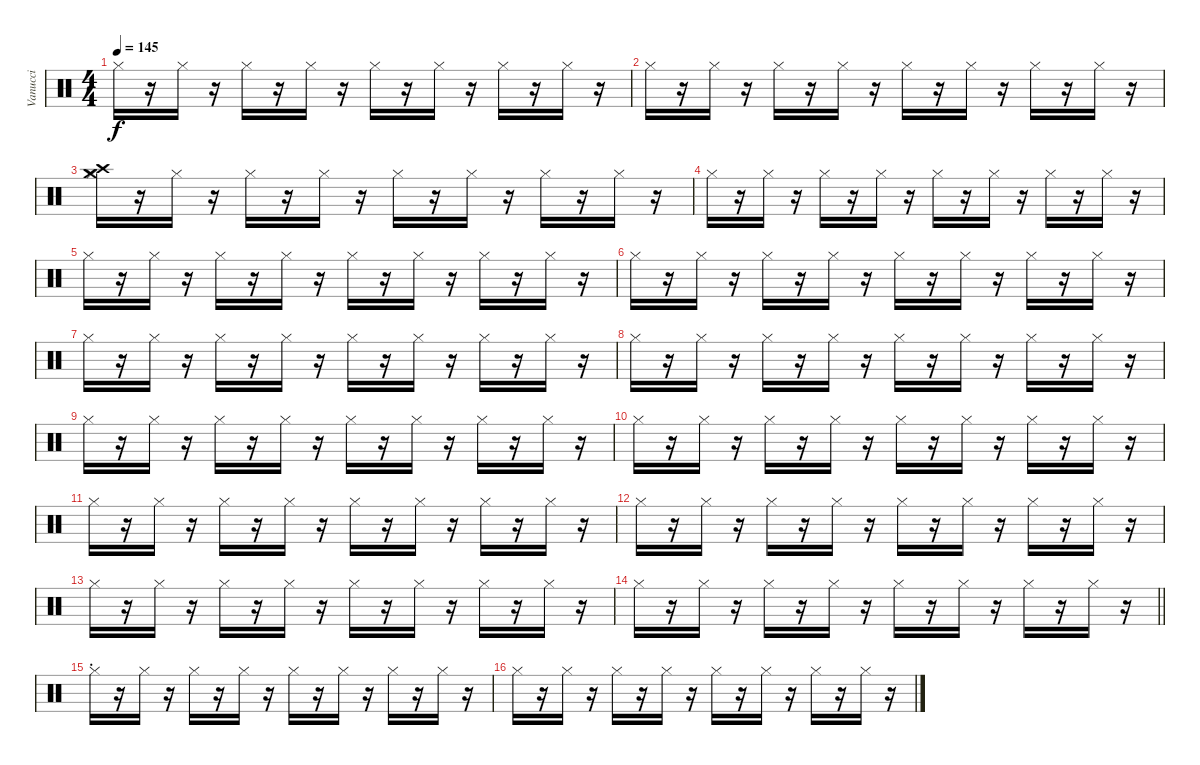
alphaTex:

\track ("Vanucci" "Vanucci") {instrument percussion}
\staff {score}
\articulation defaults
\ts (4 4)
\tempo 145
\clef neutral
\ks c "Hi-Hat (closed)".16{dy f}
r.16 "Hi-Hat (closed)".16 r.16 "Hi-Hat (closed)".16 r.16 "Hi-Hat (closed)".16 r.16 "Hi-Hat (closed)".16 r.16 "Hi-Hat (closed)".16 r.16 "Hi-Hat (closed)".16 r.16 "Hi-Hat (closed)".16 r.16 |
"Hi-Hat (closed)".16 r.16 "Hi-Hat (closed)".16 r.16 "Hi-Hat (closed)".16 r.16 "Hi-Hat (closed)".16 r.16 "Hi-Hat (closed)".16 r.16 "Hi-Hat (closed)".16 r.16 "Hi-Hat (closed)".16 r.16 "Hi-Hat (closed)".16 r.16 |
("Crash high (hit)" "Crash medium (hit)" "Hi-Hat (closed)").16 r.16 "Hi-Hat (closed)".16 r.16 "Hi-Hat (closed)".16 r.16 "Hi-Hat (closed)".16 r.16 "Hi-Hat (closed)".16 r.16 "Hi-Hat (closed)".16 r.16 "Hi-Hat (closed)".16 r.16 "Hi-Hat (closed)".16 r.16 |
"Hi-Hat (closed)".16 r.16 "Hi-Hat (closed)".16 r.16 "Hi-Hat (closed)".16 r.16 "Hi-Hat (closed)".16 r.16 "Hi-Hat (closed)".16 r.16 "Hi-Hat (closed)".16 r.16 "Hi-Hat (closed)".16 r.16 "Hi-Hat (closed)".16 r.16 |
"Hi-Hat (closed)".16 r.16 "Hi-Hat (closed)".16 r.16 "Hi-Hat (closed)".16 r.16 "Hi-Hat (closed)".16 r.16 "Hi-Hat (closed)".16 r.16 "Hi-Hat (closed)".16 r.16 "Hi-Hat (closed)".16 r.16 "Hi-Hat (closed)".16 r.16 |
"Hi-Hat (closed)".16 r.16 "Hi-Hat (closed)".16 r.16 "Hi-Hat (closed)".16 r.16 "Hi-Hat (closed)".16 r.16 "Hi-Hat (closed)".16 r.16 "Hi-Hat (closed)".16 r.16 "Hi-Hat (closed)".16 r.16 "Hi-Hat (closed)".16 r.16 |
"Hi-Hat (closed)".16 r.16 "Hi-Hat (closed)".16 r.16 "Hi-Hat (closed)".16 r.16 "Hi-Hat (closed)".16 r.16 "Hi-Hat (closed)".16 r.16 "Hi-Hat (closed)".16 r.16 "Hi-Hat (closed)".16 r.16 "Hi-Hat (closed)".16 r.16 |
"Hi-Hat (closed)".16 r.16 "Hi-Hat (closed)".16 r.16 "Hi-Hat (closed)".16 r.16 "Hi-Hat (closed)".16 r.16 "Hi-Hat (closed)".16 r.16 "Hi-Hat (closed)".16 r.16 "Hi-Hat (closed)".16 r.16 "Hi-Hat (closed)".16 r.16 |
"Hi-Hat (closed)".16 r.16 "Hi-Hat (closed)".16 r.16 "Hi-Hat (closed)".16 r.16 "Hi-Hat (closed)".16 r.16 "Hi-Hat (closed)".16 r.16 "Hi-Hat (closed)".16 r.16 "Hi-Hat (closed)".16 r.16 "Hi-Hat (closed)".16 r.16 |
"Hi-Hat (closed)".16 r.16 "Hi-Hat (closed)".16 r.16 "Hi-Hat (closed)".16 r.16 "Hi-Hat (closed)".16 r.16 "Hi-Hat (closed)".16 r.16 "Hi-Hat (closed)".16 r.16 "Hi-Hat (closed)".16 r.16 "Hi-Hat (closed)".16 r.16 |
"Hi-Hat (closed)".16 r.16 "Hi-Hat (closed)".16 r.16 "Hi-Hat (closed)".16 r.16 "Hi-Hat (closed)".16 r.16 "Hi-Hat (closed)".16 r.16 "Hi-Hat (closed)".16 r.16 "Hi-Hat (closed)".16 r.16 "Hi-Hat (closed)".16 r.16 |
"Hi-Hat (closed)".16 r.16 "Hi-Hat (closed)".16 r.16 "Hi-Hat (closed)".16 r.16 "Hi-Hat (closed)".16 r.16 "Hi-Hat (closed)".16 r.16 "Hi-Hat (closed)".16 r.16 "Hi-Hat (closed)".16 r.16 "Hi-Hat (closed)".16 r.16 |
"Hi-Hat (closed)".16 r.16 "Hi-Hat (closed)".16 r.16 "Hi-Hat (closed)".16 r.16 "Hi-Hat (closed)".16 r.16 "Hi-Hat (closed)".16 r.16 "Hi-Hat (closed)".16 r.16 "Hi-Hat (closed)".16 r.16 "Hi-Hat (closed)".16 r.16 |
\barLineRight lightlight "Hi-Hat (closed)".16
r.16 "Hi-Hat (closed)".16 r.16 "Hi-Hat (closed)".16 r.16 "Hi-Hat (closed)".16 r.16 "Hi-Hat (closed)".16 r.16 "Hi-Hat (closed)".16 r.16 "Hi-Hat (closed)".16 r.16 "Hi-Hat (closed)".16 r.16 |
\section ("" ".")
"Hi-Hat (closed)".16 r.16 "Hi-Hat (closed)".16 r.16 "Hi-Hat (closed)".16 r.16 "Hi-Hat (closed)".16 r.16 "Hi-Hat (closed)".16 r.16 "Hi-Hat (closed)".16 r.16 "Hi-Hat (closed)".16 r.16 "Hi-Hat (closed)".16 r.16 |
"Hi-Hat (closed)".16 r.16 "Hi-Hat (closed)".16 r.16 "Hi-Hat (closed)".16 r.16 "Hi-Hat (closed)".16 r.16 "Hi-Hat (closed)".16 r.16 "Hi-Hat (closed)".16 r.16 "Hi-Hat (closed)".16 r.16 "Hi-Hat (closed)".16 r.16
